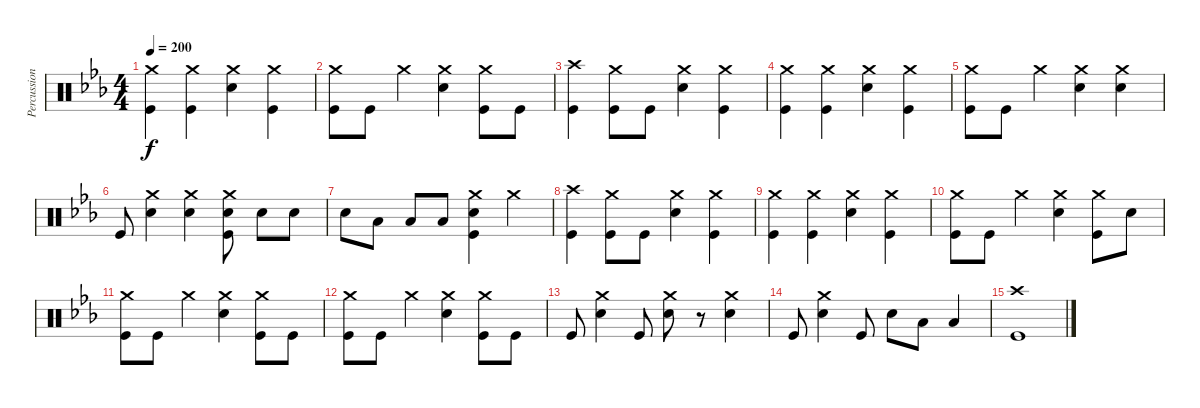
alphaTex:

\track ("Percussion" "Percussion") {instrument percussion}
\staff {score}
\articulation defaults
\ts (4 4)
\tempo 200
\clef neutral
\ks eb
("Crash medium (hit)" "Kick (hit)").4{dy f} ("Crash medium (hit)" "Kick (hit)").4 ("Crash medium (hit)" "Snare (hit) 2").4 ("Crash medium (hit)" "Kick (hit)").4 |
("Crash medium (hit)" "Kick (hit)").8 "Kick (hit)".8 "Crash medium (hit)".4 ("Crash medium (hit)" "Snare (hit) 2").4 ("Crash medium (hit)" "Kick (hit)").8 "Kick (hit)".8 |
("Crash high (hit)" "Kick (hit)").4 ("Crash medium (hit)" "Kick (hit)").8 "Kick (hit)".8 ("Crash medium (hit)" "Snare (hit) 2").4 ("Crash medium (hit)" "Kick (hit)").4 |
("Crash medium (hit)" "Kick (hit)").4 ("Crash medium (hit)" "Kick (hit)").4 ("Crash medium (hit)" "Snare (hit) 2").4 ("Crash medium (hit)" "Kick (hit)").4 |
("Crash medium (hit)" "Kick (hit)").8 "Kick (hit)".8 "Crash medium (hit)".4 ("Crash medium (hit)" "Snare (hit) 2").4 ("Crash medium (hit)" "Snare (hit) 2").4 |
"Kick (hit)".8 ("Crash medium (hit)" "Snare (hit) 2").4 ("Crash medium (hit)" "Snare (hit) 2").4 ("Crash medium (hit)" "Snare (hit) 2" "Kick (hit)").8 "Snare (hit) 2".8 "Snare (hit) 2".8 |
"Snare (hit) 2".8 "Low Tom (hit)".8 "Low Tom (hit)".8 "Low Floor Tom (hit)".8 ("Crash medium (hit)" "Snare (hit) 2" "Kick (hit)").4 "Crash medium (hit)".4 |
("Crash high (hit)" "Kick (hit)").4 ("Crash medium (hit)" "Kick (hit)").8 "Kick (hit)".8 ("Crash medium (hit)" "Snare (hit) 2").4 ("Crash medium (hit)" "Kick (hit)").4 |
("Crash medium (hit)" "Kick (hit)").4 ("Crash medium (hit)" "Kick (hit)").4 ("Crash medium (hit)" "Snare (hit) 2").4 ("Crash medium (hit)" "Kick (hit)").4 |
("Crash medium (hit)" "Kick (hit)").8 "Kick (hit)".8 "Crash medium (hit)".4 ("Crash medium (hit)" "Snare (hit) 2").4 ("Crash medium (hit)" "Kick (hit)").8 "Snare (hit) 2".8 |
("Crash medium (hit)" "Kick (hit)").8 "Kick (hit)".8 "Crash medium (hit)".4 ("Crash medium (hit)" "Snare (hit) 2").4 ("Crash medium (hit)" "Kick (hit)").8 "Kick (hit)".8 |
("Crash medium (hit)" "Kick (hit)").8 "Kick (hit)".8 "Crash medium (hit)".4 ("Crash medium (hit)" "Snare (hit) 2").4 ("Crash medium (hit)" "Kick (hit)").8 "Kick (hit)".8 |
"Kick (hit)".8 ("Crash medium (hit)" "Snare (hit) 2").4 "Kick (hit)".8 ("Crash medium (hit)" "Snare (hit) 2").8 r.8 ("Crash medium (hit)" "Snare (hit) 2").4 |
"Kick (hit)".8 ("Crash medium (hit)" "Snare (hit) 2").4 "Kick (hit)".8 "Snare (hit) 2".8 "Low Tom (hit)".8 "Low Floor Tom (hit)".4 |
("Crash high (hit)" "Kick (hit)").1
